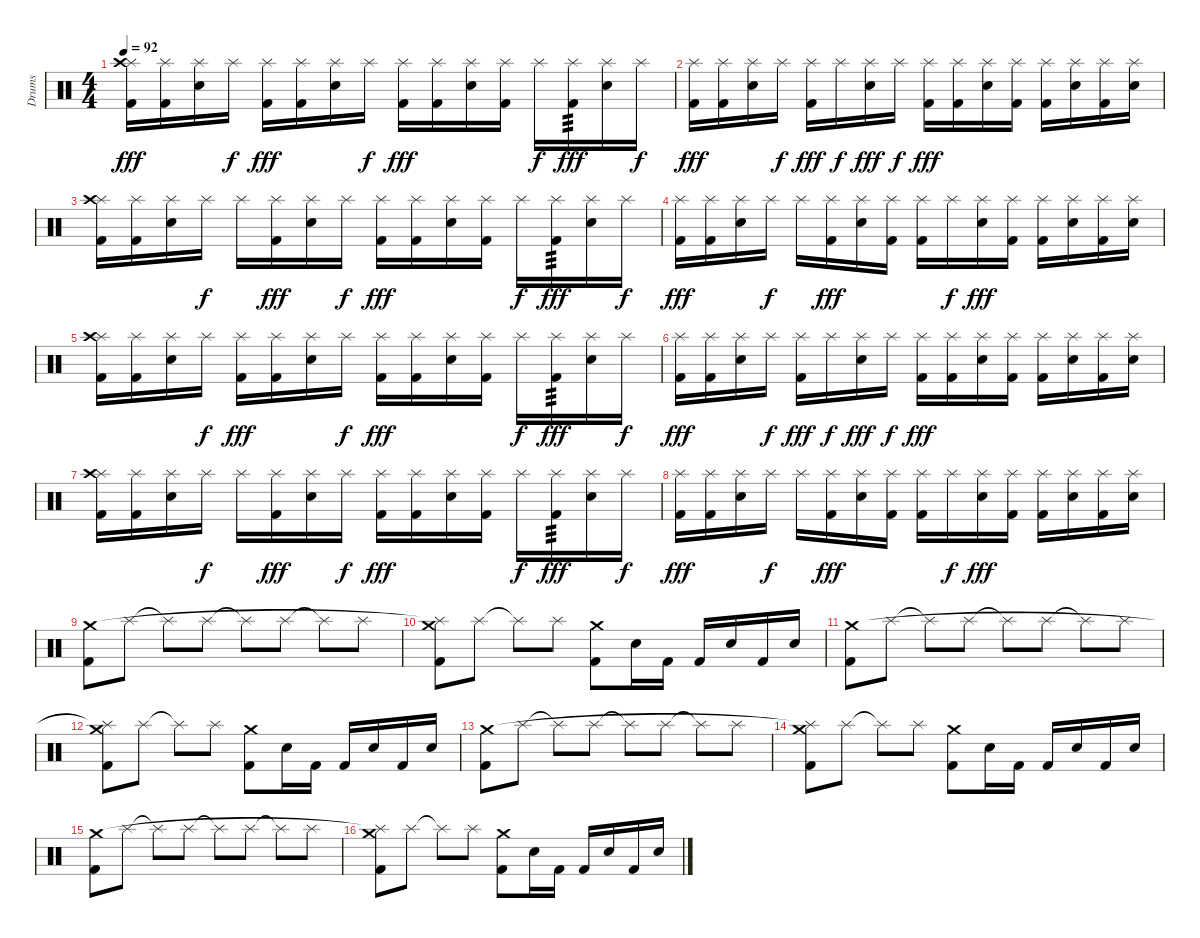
\track ("Drums" "Drums") {instrument percussion}
\staff {score}
\articulation defaults
\ts (4 4)
\tempo 92
\clef neutral
\ks c
("Kick (hit) 2" "Splash (hit)" "Crash high (hit)").16{dy fff} ("Kick (hit) 2" "Splash (hit)").16 ("Electric Snare (hit)" "Splash (hit)").16 "Splash (hit)".16{dy f} ("Kick (hit) 2" "Splash (hit)").16{dy fff} ("Kick (hit) 2" "Splash (hit)").16 ("Electric Snare (hit)" "Splash (hit)").16 "Splash (hit)".16{dy f} ("Kick (hit) 2" "Splash (hit)").16{dy fff} ("Kick (hit) 2" "Splash (hit)").16 ("Electric Snare (hit)" "Splash (hit)").16 ("Kick (hit) 2" "Splash (hit)").16 "Splash (hit)".16{dy f} ("Kick (hit) 2" "Splash (hit)").16{tp 3 dy fff} ("Electric Snare (hit)" "Splash (hit)").16 "Splash (hit)".16{dy f} |
("Kick (hit) 2" "Splash (hit)").16{dy fff} ("Kick (hit) 2" "Splash (hit)").16 ("Electric Snare (hit)" "Splash (hit)").16 "Splash (hit)".16{dy f} ("Kick (hit) 2" "Splash (hit)").16{dy fff} "Splash (hit)".16{dy f} ("Electric Snare (hit)" "Splash (hit)").16{dy fff} "Splash (hit)".16{dy f} ("Kick (hit) 2" "Splash (hit)").16{dy fff} ("Kick (hit) 2" "Splash (hit)").16 ("Electric Snare (hit)" "Splash (hit)").16 ("Kick (hit) 2" "Splash (hit)").16 ("Kick (hit) 2" "Splash (hit)").16 ("Electric Snare (hit)" "Splash (hit)").16 ("Kick (hit) 2" "Splash (hit)").16 ("Electric Snare (hit)" "Splash (hit)").16 |
("Kick (hit) 2" "Splash (hit)" "Crash high (hit)").16 ("Kick (hit) 2" "Splash (hit)").16 ("Electric Snare (hit)" "Splash (hit)").16 "Splash (hit)".16{dy f} "Splash (hit)".16 ("Kick (hit) 2" "Splash (hit)").16{dy fff} ("Electric Snare (hit)" "Splash (hit)").16 "Splash (hit)".16{dy f} ("Kick (hit) 2" "Splash (hit)").16{dy fff} ("Kick (hit) 2" "Splash (hit)").16 ("Electric Snare (hit)" "Splash (hit)").16 ("Kick (hit) 2" "Splash (hit)").16 "Splash (hit)".16{dy f} ("Kick (hit) 2" "Splash (hit)").16{tp 3 dy fff} ("Electric Snare (hit)" "Splash (hit)").16 "Splash (hit)".16{dy f} |
("Kick (hit) 2" "Splash (hit)").16{dy fff} ("Kick (hit) 2" "Splash (hit)").16 ("Electric Snare (hit)" "Splash (hit)").16 "Splash (hit)".16{dy f} "Splash (hit)".16 ("Kick (hit) 2" "Splash (hit)").16{dy fff} ("Electric Snare (hit)" "Splash (hit)").16 ("Kick (hit) 2" "Splash (hit)").16 ("Kick (hit) 2" "Splash (hit)").16 "Splash (hit)".16{dy f} ("Electric Snare (hit)" "Splash (hit)").16{dy fff} ("Kick (hit) 2" "Splash (hit)").16 ("Kick (hit) 2" "Splash (hit)").16 ("Electric Snare (hit)" "Splash (hit)").16 ("Kick (hit) 2" "Splash (hit)").16 ("Electric Snare (hit)" "Splash (hit)").16 |
("Kick (hit) 2" "Splash (hit)" "Crash high (hit)").16 ("Kick (hit) 2" "Splash (hit)").16 ("Electric Snare (hit)" "Splash (hit)").16 "Splash (hit)".16{dy f} ("Kick (hit) 2" "Splash (hit)").16{dy fff} ("Kick (hit) 2" "Splash (hit)").16 ("Electric Snare (hit)" "Splash (hit)").16 "Splash (hit)".16{dy f} ("Kick (hit) 2" "Splash (hit)").16{dy fff} ("Kick (hit) 2" "Splash (hit)").16 ("Electric Snare (hit)" "Splash (hit)").16 ("Kick (hit) 2" "Splash (hit)").16 "Splash (hit)".16{dy f} ("Kick (hit) 2" "Splash (hit)").16{tp 3 dy fff} ("Electric Snare (hit)" "Splash (hit)").16 "Splash (hit)".16{dy f} |
("Kick (hit) 2" "Splash (hit)").16{dy fff} ("Kick (hit) 2" "Splash (hit)").16 ("Electric Snare (hit)" "Splash (hit)").16 "Splash (hit)".16{dy f} ("Kick (hit) 2" "Splash (hit)").16{dy fff} "Splash (hit)".16{dy f} ("Electric Snare (hit)" "Splash (hit)").16{dy fff} "Splash (hit)".16{dy f} ("Kick (hit) 2" "Splash (hit)").16{dy fff} ("Kick (hit) 2" "Splash (hit)").16 ("Electric Snare (hit)" "Splash (hit)").16 ("Kick (hit) 2" "Splash (hit)").16 ("Kick (hit) 2" "Splash (hit)").16 ("Electric Snare (hit)" "Splash (hit)").16 ("Kick (hit) 2" "Splash (hit)").16 ("Electric Snare (hit)" "Splash (hit)").16 |
("Kick (hit) 2" "Splash (hit)" "Crash high (hit)").16 ("Kick (hit) 2" "Splash (hit)").16 ("Electric Snare (hit)" "Splash (hit)").16 "Splash (hit)".16{dy f} "Splash (hit)".16 ("Kick (hit) 2" "Splash (hit)").16{dy fff} ("Electric Snare (hit)" "Splash (hit)").16 "Splash (hit)".16{dy f} ("Kick (hit) 2" "Splash (hit)").16{dy fff} ("Kick (hit) 2" "Splash (hit)").16 ("Electric Snare (hit)" "Splash (hit)").16 ("Kick (hit) 2" "Splash (hit)").16 "Splash (hit)".16{dy f} ("Kick (hit) 2" "Splash (hit)").16{tp 3 dy fff} ("Electric Snare (hit)" "Splash (hit)").16 "Splash (hit)".16{dy f} |
("Kick (hit) 2" "Splash (hit)").16{dy fff} ("Kick (hit) 2" "Splash (hit)").16 ("Electric Snare (hit)" "Splash (hit)").16 "Splash (hit)".16{dy f} "Splash (hit)".16 ("Kick (hit) 2" "Splash (hit)").16{dy fff} ("Electric Snare (hit)" "Splash (hit)").16 ("Kick (hit) 2" "Splash (hit)").16 ("Kick (hit) 2" "Splash (hit)").16 "Splash (hit)".16{dy f} ("Electric Snare (hit)" "Splash (hit)").16{dy fff} ("Kick (hit) 2" "Splash (hit)").16 ("Kick (hit) 2" "Splash (hit)").16 ("Electric Snare (hit)" "Splash (hit)").16 ("Kick (hit) 2" "Splash (hit)").16 ("Electric Snare (hit)" "Splash (hit)").16 |
("Kick (hit) 2" "Crash medium (hit)").8 "Splash (hit)".8 "Splash (hit)"{t}.8 "Splash (hit)".8 "Splash (hit)"{t}.8 "Splash (hit)".8 "Splash (hit)"{t}.8 "Splash (hit)".8 |
("Kick (hit) 2" "Splash (hit)"{t} "Crash medium (hit)").8 "Splash (hit)".8 "Splash (hit)"{t}.8 "Splash (hit)".8 ("Kick (hit) 2" "Crash medium (hit)").8 "Electric Snare (hit)".16 "Kick (hit) 2".16 "Kick (hit) 2".16 "Electric Snare (hit)".16 "Kick (hit) 2".16 "Electric Snare (hit)".16 |
("Kick (hit) 2" "Crash medium (hit)").8 "Splash (hit)".8 "Splash (hit)"{t}.8 "Splash (hit)".8 "Splash (hit)"{t}.8 "Splash (hit)".8 "Splash (hit)"{t}.8 "Splash (hit)".8 |
("Kick (hit) 2" "Splash (hit)"{t} "Crash medium (hit)").8 "Splash (hit)".8 "Splash (hit)"{t}.8 "Splash (hit)".8 ("Kick (hit) 2" "Crash medium (hit)").8 "Electric Snare (hit)".16 "Kick (hit) 2".16 "Kick (hit) 2".16 "Electric Snare (hit)".16 "Kick (hit) 2".16 "Electric Snare (hit)".16 |
("Kick (hit) 2" "Crash medium (hit)").8 "Splash (hit)".8 "Splash (hit)"{t}.8 "Splash (hit)".8 "Splash (hit)"{t}.8 "Splash (hit)".8 "Splash (hit)"{t}.8 "Splash (hit)".8 |
("Kick (hit) 2" "Splash (hit)"{t} "Crash medium (hit)").8 "Splash (hit)".8 "Splash (hit)"{t}.8 "Splash (hit)".8 ("Kick (hit) 2" "Crash medium (hit)").8 "Electric Snare (hit)".16 "Kick (hit) 2".16 "Kick (hit) 2".16 "Electric Snare (hit)".16 "Kick (hit) 2".16 "Electric Snare (hit)".16 |
("Kick (hit) 2" "Crash medium (hit)").8 "Splash (hit)".8 "Splash (hit)"{t}.8 "Splash (hit)".8 "Splash (hit)"{t}.8 "Splash (hit)".8 "Splash (hit)"{t}.8 "Splash (hit)".8 |
("Kick (hit) 2" "Splash (hit)"{t} "Crash medium (hit)").8 "Splash (hit)".8 "Splash (hit)"{t}.8 "Splash (hit)".8 ("Kick (hit) 2" "Crash medium (hit)").8 "Electric Snare (hit)".16 "Kick (hit) 2".16 "Kick (hit) 2".16 "Electric Snare (hit)".16 "Kick (hit) 2".16 "Electric Snare (hit)".16
